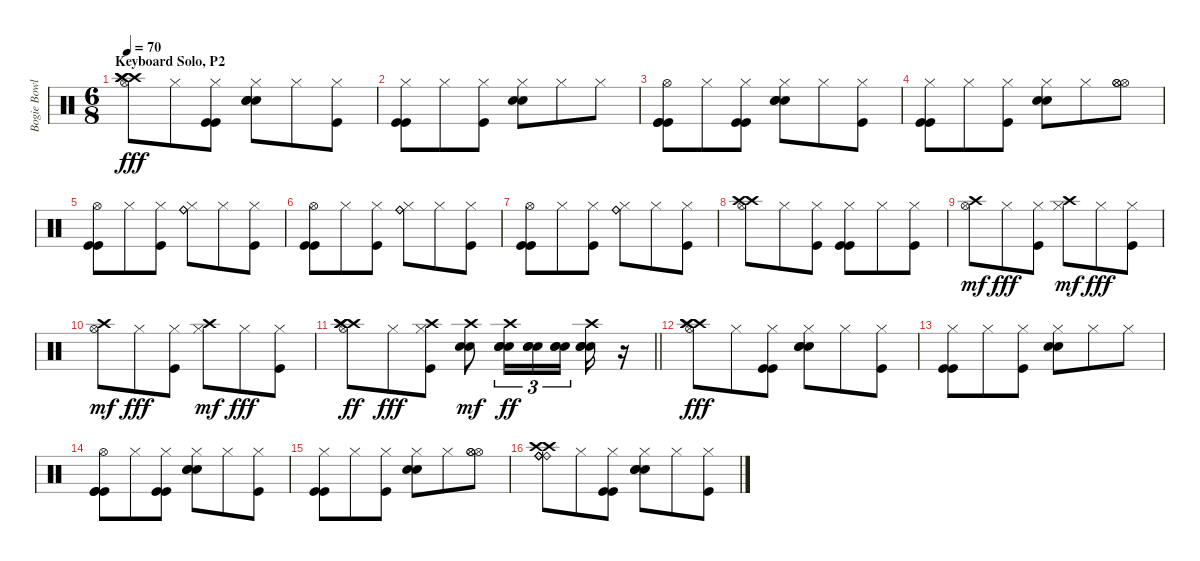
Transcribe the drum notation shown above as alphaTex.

\track ("Bogie Bowles" "Bogie Bowl") {instrument percussion}
\staff {score}
\articulation defaults
\ts (6 8)
\section ("" "Keyboard Solo, P2")
\tempo 70
\clef neutral
\ks c
("Hi-Hat (open)" "Crash high (hit)" "Crash high (hit)" "Crash high (hit)").8{dy fff volume 16} "Hi-Hat (closed)".8 ("Hi-Hat (closed)" "Kick (hit)" "Kick (hit)").8 ("Hi-Hat (closed)" "Snare (hit) 2" "Snare (hit) 2" "Snare (hit) 2").8 "Hi-Hat (closed)".8 ("Hi-Hat (closed)" "Kick (hit)").8 |
("Hi-Hat (closed)" "Kick (hit)" "Kick (hit)").8 "Hi-Hat (closed)".8 ("Hi-Hat (closed)" "Kick (hit)").8 ("Hi-Hat (closed)" "Snare (hit) 2" "Snare (hit) 2").8 "Hi-Hat (closed)".8 "Hi-Hat (closed)".8 |
("Hi-Hat (open)" "Kick (hit)" "Kick (hit)" "Kick (hit)").8 "Hi-Hat (closed)".8 ("Hi-Hat (closed)" "Kick (hit)" "Kick (hit)").8 ("Hi-Hat (closed)" "Snare (hit) 2" "Snare (hit) 2" "Snare (hit) 2").8 "Hi-Hat (closed)".8 ("Hi-Hat (closed)" "Kick (hit)").8 |
("Hi-Hat (closed)" "Kick (hit)" "Kick (hit)").8 "Hi-Hat (closed)".8 ("Hi-Hat (closed)" "Kick (hit)").8 ("Hi-Hat (closed)" "Snare (hit) 2" "Snare (hit) 2").8 "Hi-Hat (closed)".8 ("Hi-Hat (open)" "Hi-Hat (open)" "Hi-Hat (open)").8 |
("Hi-Hat (open)" "Kick (hit)" "Kick (hit)").8 "Hi-Hat (closed)".8 ("Hi-Hat (closed)" "Kick (hit)").8 ("Hi-Hat (closed)" "Ride (bell)" "Ride (bell)").8 "Hi-Hat (closed)".8 ("Hi-Hat (closed)" "Kick (hit)").8 |
("Hi-Hat (open)" "Kick (hit)" "Kick (hit)").8 "Hi-Hat (closed)".8 ("Hi-Hat (closed)" "Kick (hit)").8 ("Hi-Hat (closed)" "Ride (bell)" "Ride (bell)").8 "Hi-Hat (closed)".8 ("Hi-Hat (closed)" "Kick (hit)").8 |
("Hi-Hat (open)" "Kick (hit)" "Kick (hit)").8 "Hi-Hat (closed)".8 ("Hi-Hat (closed)" "Kick (hit)").8 ("Hi-Hat (closed)" "Ride (bell)" "Ride (bell)").8 "Hi-Hat (closed)".8 ("Hi-Hat (closed)" "Kick (hit)").8 |
("Hi-Hat (open)" "Crash high (hit)" "Crash high (hit)").8 "Hi-Hat (closed)".8 ("Hi-Hat (closed)" "Kick (hit)").8 ("Hi-Hat (closed)" "Kick (hit)" "Kick (hit)").8 "Hi-Hat (closed)".8 ("Hi-Hat (closed)" "Kick (hit)").8 |
("Hi-Hat (open)" "Crash high (hit)").8{dy mf} "Hi-Hat (closed)".8{dy fff} ("Hi-Hat (closed)" "Kick (hit)").8 ("Hi-Hat (closed)" "Crash high (hit)").8{dy mf} "Hi-Hat (closed)".8{dy fff} ("Hi-Hat (closed)" "Kick (hit)").8 |
("Hi-Hat (open)" "Crash high (hit)").8{dy mf} "Hi-Hat (closed)".8{dy fff} ("Hi-Hat (closed)" "Kick (hit)").8 ("Hi-Hat (closed)" "Crash high (hit)").8{dy mf} "Hi-Hat (closed)".8{dy fff} ("Hi-Hat (closed)" "Kick (hit)").8 |
\barLineRight lightlight
("Hi-Hat (open)" "Crash high (hit)" "Crash high (hit)" "Crash high (hit)").8{dy ff volume 16} "Hi-Hat (closed)".8{dy fff} ("Hi-Hat (closed)" "Crash high (hit)" "Kick (hit)").8 ("Crash high (hit)" "Snare (hit) 2" "Snare (hit) 2").8{dy mf} ("Crash high (hit)" "Snare (hit) 2" "Snare (hit) 2" "Snare (hit) 2").16{tu (3 2) dy ff} ("Snare (hit) 2" "Snare (hit) 2" "Snare (hit) 2").16{tu (3 2)} ("Snare (hit) 2" "Snare (hit) 2" "Snare (hit) 2").16{tu (3 2) beam splitsecondary} ("Crash high (hit)" "Snare (hit) 2" "Snare (hit) 2" "Snare (hit) 2").16 r.16 |
("Hi-Hat (open)" "Crash high (hit)" "Crash high (hit)" "Crash high (hit)").8{dy fff volume 16} "Hi-Hat (closed)".8 ("Hi-Hat (closed)" "Kick (hit)" "Kick (hit)").8 ("Hi-Hat (closed)" "Snare (hit) 2" "Snare (hit) 2" "Snare (hit) 2").8 "Hi-Hat (closed)".8 ("Hi-Hat (closed)" "Kick (hit)").8 |
("Hi-Hat (closed)" "Kick (hit)" "Kick (hit)").8 "Hi-Hat (closed)".8 ("Hi-Hat (closed)" "Kick (hit)").8 ("Hi-Hat (closed)" "Snare (hit) 2" "Snare (hit) 2").8 "Hi-Hat (closed)".8 "Hi-Hat (closed)".8 |
("Hi-Hat (open)" "Kick (hit)" "Kick (hit)" "Kick (hit)").8 "Hi-Hat (closed)".8 ("Hi-Hat (closed)" "Kick (hit)" "Kick (hit)").8 ("Hi-Hat (closed)" "Snare (hit) 2" "Snare (hit) 2" "Snare (hit) 2").8 "Hi-Hat (closed)".8 ("Hi-Hat (closed)" "Kick (hit)").8 |
("Hi-Hat (closed)" "Kick (hit)" "Kick (hit)").8 "Hi-Hat (closed)".8 ("Hi-Hat (closed)" "Kick (hit)").8 ("Hi-Hat (closed)" "Snare (hit) 2" "Snare (hit) 2").8 "Hi-Hat (closed)".8 ("Hi-Hat (open)" "Hi-Hat (open)" "Hi-Hat (open)").8 |
("Ride (bell)" "Ride (bell)" "Crash high (hit)" "Crash high (hit)" "Ride (bell)" "Ride (bell)").8 "Hi-Hat (closed)".8 ("Hi-Hat (closed)" "Kick (hit)" "Kick (hit)").8 ("Hi-Hat (closed)" "Snare (hit) 2" "Snare (hit) 2" "Snare (hit) 2").8 "Hi-Hat (closed)".8 ("Hi-Hat (closed)" "Kick (hit)").8
